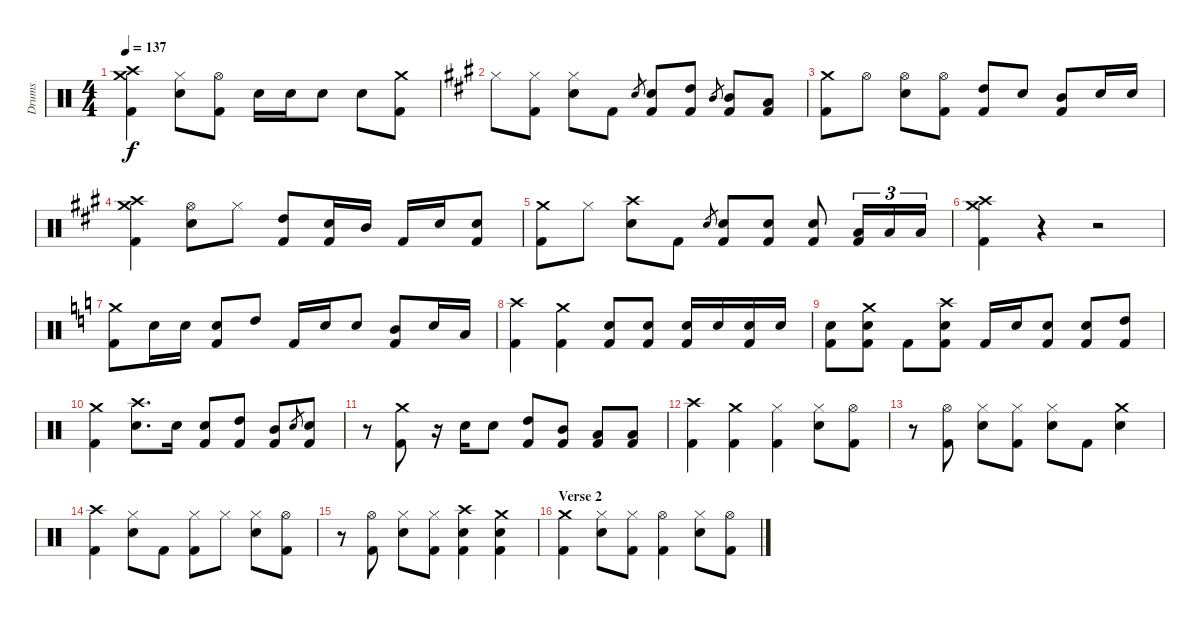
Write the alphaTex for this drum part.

\track ("Drums" "Drums") {instrument percussion}
\staff {score}
\articulation defaults
\ts (4 4)
\tempo 137
\clef neutral
\ks c
("Crash high (hit)" "Crash medium (hit)" "Kick (hit) 2").4{dy f} ("Hi-Hat (closed)" "Snare (hit) 2").8 ("Hi-Hat (open)" "Kick (hit) 2").8 "Snare (hit) 2".16 "Snare (hit) 2".16 "Snare (hit) 2".8 "Snare (hit) 2".8 ("Crash medium (hit)" "Kick (hit) 2").8 |
\ks a "Hi-Hat (closed)".8
("Hi-Hat (closed)" "Kick (hit) 2").8 ("Hi-Hat (closed)" "Snare (hit) 2").8 "Kick (hit) 2".8 "Snare (hit) 2".8{gr} ("Snare (hit) 2" "Kick (hit) 2").8 ("High Tom (hit)" "Kick (hit) 2").8 "Mid Tom (hit)".8{gr} ("Mid Tom (hit)" "Kick (hit) 2").8 ("Low Tom (hit)" "Kick (hit) 2").8 |
("Crash medium (hit)" "Kick (hit) 2").8 "Hi-Hat (open)".8 ("Hi-Hat (open)" "Snare (hit) 2").8 ("Hi-Hat (open)" "Kick (hit) 2").8 ("High Tom (hit)" "Kick (hit) 2").8 "Snare (hit) 2".8 ("Mid Tom (hit)" "Kick (hit) 2").8 "Snare (hit) 2".16 "Snare (hit) 2".16 |
("Crash medium (hit)" "Crash high (hit)" "Kick (hit) 2").4 ("Hi-Hat (open)" "Snare (hit) 2").8 "Hi-Hat (closed)".8 ("High Tom (hit)" "Kick (hit) 2").8 ("Snare (hit) 2" "Kick (hit) 2").16 "Mid Tom (hit)".16 "Kick (hit) 2".16 "Snare (hit) 2".16 ("Snare (hit) 2" "Kick (hit) 2").8 |
("Crash medium (hit)" "Kick (hit) 2").8 "Hi-Hat (closed)".8 ("Crash high (hit)" "Snare (hit) 2").8 "Kick (hit) 2".8 "Snare (hit) 2".8{gr} ("Snare (hit) 2" "Kick (hit) 2").8 ("Snare (hit) 2" "Kick (hit) 2").8 ("Snare (hit) 2" "Kick (hit) 2").8 ("Low Tom (hit)" "Kick (hit) 2").16{tu (3 2)} "Low Tom (hit)".16{tu (3 2)} "Low Tom (hit)".16{tu (3 2)} |
("Crash high (hit)" "Crash medium (hit)" "Kick (hit) 2").4 r.4 r.2 |
\ks c
("Crash medium (hit)" "Kick (hit) 2").8 "Snare (hit) 2".16 "Snare (hit) 2".16 ("Snare (hit) 2" "Kick (hit) 2").8 "High Tom (hit)".8 "Kick (hit) 2".16 "Snare (hit) 2".16 "Snare (hit) 2".8 ("Mid Tom (hit)" "Kick (hit) 2").8 "Snare (hit) 2".16 "Low Tom (hit)".16 |
("Crash high (hit)" "Kick (hit) 2").4 ("Crash medium (hit)" "Kick (hit) 2").4 ("Snare (hit) 2" "Kick (hit) 2").8 ("Snare (hit) 2" "Kick (hit) 2").8 ("Snare (hit) 2" "Kick (hit) 2").16 "Snare (hit) 2".16 ("Snare (hit) 2" "Kick (hit) 2").16 "Snare (hit) 2".16 |
("Snare (hit) 2" "Kick (hit) 2").8 ("Crash medium (hit)" "Snare (hit) 2" "Kick (hit) 2").8 "Kick (hit) 2".8 ("Crash high (hit)" "Snare (hit) 2" "Kick (hit) 2").8 "Kick (hit) 2".16 "Snare (hit) 2".16 ("Snare (hit) 2" "Kick (hit) 2").8 ("Snare (hit) 2" "Kick (hit) 2").8 ("High Tom (hit)" "Kick (hit) 2").8 |
("Crash medium (hit)" "Kick (hit) 2").4 ("Crash high (hit)" "Snare (hit) 2").8{d} "Snare (hit) 2".16 ("Snare (hit) 2" "Kick (hit) 2").8 ("High Tom (hit)" "Kick (hit) 2").8 ("Mid Tom (hit)" "Kick (hit) 2").8 "Snare (hit) 2".8{gr} ("Snare (hit) 2" "Kick (hit) 2").8 |
r.8 ("Crash medium (hit)" "Kick (hit) 2").8 r.16 "Snare (hit) 2".16 "Snare (hit) 2".8 ("High Tom (hit)" "Kick (hit) 2").8 ("Mid Tom (hit)" "Kick (hit) 2").8 ("Low Tom (hit)" "Kick (hit) 2").8 ("Low Floor Tom (hit)" "Kick (hit) 2").8 |
("Crash high (hit)" "Kick (hit) 2").4 ("Crash medium (hit)" "Kick (hit) 2").4 ("Hi-Hat (closed)" "Kick (hit) 2").4 ("Hi-Hat (closed)" "Snare (hit) 2").8 ("Hi-Hat (open)" "Kick (hit) 2").8 |
r.8 ("Hi-Hat (open)" "Kick (hit) 2").8 ("Hi-Hat (closed)" "Snare (hit) 2").8 ("Hi-Hat (closed)" "Kick (hit) 2").8 ("Hi-Hat (closed)" "Snare (hit) 2").8 "Kick (hit) 2".8 ("Crash medium (hit)" "Snare (hit) 2").4 |
("Crash high (hit)" "Kick (hit) 2").4 ("Hi-Hat (closed)" "Snare (hit) 2").8 "Kick (hit) 2".8 ("Hi-Hat (closed)" "Kick (hit) 2").8 "Hi-Hat (closed)".8 ("Hi-Hat (closed)" "Snare (hit) 2").8 ("Hi-Hat (open)" "Kick (hit) 2").8 |
r.8 ("Hi-Hat (open)" "Kick (hit) 2").8 ("Hi-Hat (closed)" "Snare (hit) 2").8 ("Hi-Hat (closed)" "Kick (hit) 2").8 ("Crash high (hit)" "Snare (hit) 2" "Kick (hit) 2").4 ("Crash medium (hit)" "Snare (hit) 2" "Kick (hit) 2").4 |
\section ("" "Verse 2")
("Crash medium (hit)" "Kick (hit) 2").4 ("Hi-Hat (closed)" "Snare (hit) 2").8 ("Hi-Hat (closed)" "Kick (hit) 2").8 ("Hi-Hat (open)" "Kick (hit) 2").4 ("Hi-Hat (closed)" "Snare (hit) 2").8 ("Hi-Hat (open)" "Kick (hit) 2").8
